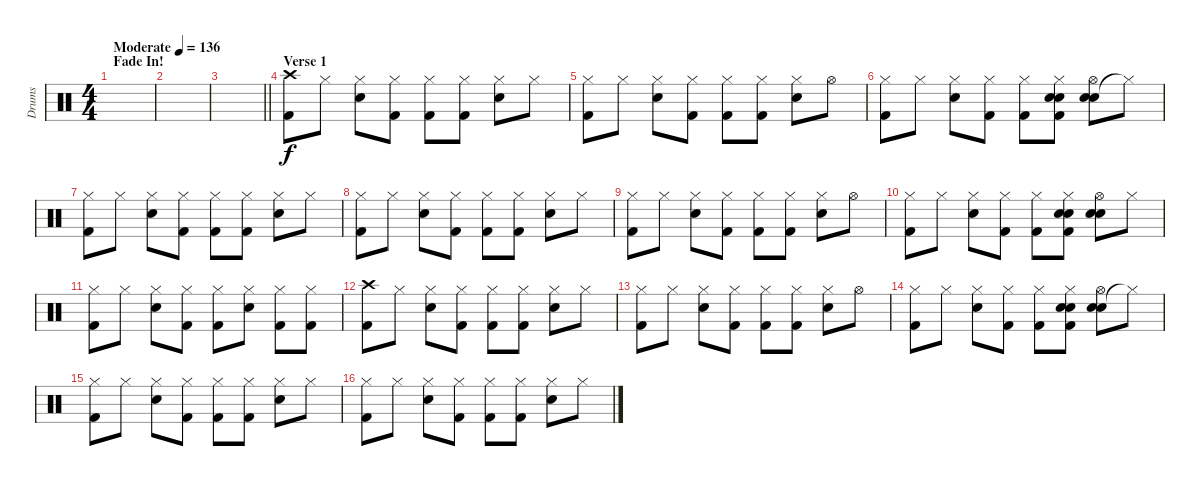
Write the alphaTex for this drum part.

\track ("Drums" "Drums") {instrument percussion}
\staff {score}
\articulation defaults
\ts (4 4)
\section ("" "Fade In!")
\tempo (136 "Moderate")
\clef neutral
\ks c
|
|
\barLineRight lightlight
|
\section ("" "Verse 1")
("Crash high (hit)" "Kick (hit) 2").8 "Hi-Hat (closed)".8 ("Hi-Hat (closed)" "Electric Snare (hit)").8 ("Hi-Hat (closed)" "Kick (hit) 2").8 ("Hi-Hat (closed)" "Kick (hit) 2").8 ("Hi-Hat (closed)" "Kick (hit) 2").8 ("Hi-Hat (closed)" "Electric Snare (hit)").8 "Hi-Hat (closed)".8 |
("Hi-Hat (closed)" "Kick (hit) 2").8 "Hi-Hat (closed)".8 ("Hi-Hat (closed)" "Electric Snare (hit)").8 ("Hi-Hat (closed)" "Kick (hit) 2").8 ("Hi-Hat (closed)" "Kick (hit) 2").8 ("Hi-Hat (closed)" "Kick (hit) 2").8 ("Hi-Hat (closed)" "Electric Snare (hit)").8 "Hi-Hat (open)".8 |
("Hi-Hat (closed)" "Kick (hit) 2").8 "Hi-Hat (closed)".8 ("Hi-Hat (closed)" "Electric Snare (hit)").8 ("Hi-Hat (closed)" "Kick (hit) 2").8 ("Hi-Hat (closed)" "Kick (hit) 2").8 ("Hand Clap (hit)" "Hi-Hat (closed)" "Electric Snare (hit)" "Kick (hit) 2").8 ("Hand Clap (hit)" "Hi-Hat (open)" "Electric Snare (hit)").8 "Hi-Hat (closed)"{t}.8 |
("Hi-Hat (closed)" "Kick (hit) 2").8 "Hi-Hat (closed)".8 ("Hi-Hat (closed)" "Electric Snare (hit)").8 ("Hi-Hat (closed)" "Kick (hit) 2").8 ("Hi-Hat (closed)" "Kick (hit) 2").8 ("Hi-Hat (closed)" "Kick (hit) 2").8 ("Hi-Hat (closed)" "Electric Snare (hit)").8 "Hi-Hat (closed)".8 |
("Hi-Hat (closed)" "Kick (hit) 2").8 "Hi-Hat (closed)".8 ("Hi-Hat (closed)" "Electric Snare (hit)").8 ("Hi-Hat (closed)" "Kick (hit) 2").8 ("Hi-Hat (closed)" "Kick (hit) 2").8 ("Hi-Hat (closed)" "Kick (hit) 2").8 ("Hi-Hat (closed)" "Electric Snare (hit)").8 "Hi-Hat (closed)".8 |
("Hi-Hat (closed)" "Kick (hit) 2").8 "Hi-Hat (closed)".8 ("Hi-Hat (closed)" "Electric Snare (hit)").8 ("Hi-Hat (closed)" "Kick (hit) 2").8 ("Hi-Hat (closed)" "Kick (hit) 2").8 ("Hi-Hat (closed)" "Kick (hit) 2").8 ("Hi-Hat (closed)" "Electric Snare (hit)").8 "Hi-Hat (open)".8 |
("Hi-Hat (closed)" "Kick (hit) 2").8 "Hi-Hat (closed)".8 ("Hi-Hat (closed)" "Electric Snare (hit)").8 ("Hi-Hat (closed)" "Kick (hit) 2").8 ("Hi-Hat (closed)" "Kick (hit) 2").8 ("Hand Clap (hit)" "Hi-Hat (closed)" "Electric Snare (hit)" "Kick (hit) 2").8 ("Hand Clap (hit)" "Hi-Hat (open)" "Electric Snare (hit)").8 "Hi-Hat (closed)".8 |
("Hi-Hat (closed)" "Kick (hit) 2").8 "Hi-Hat (closed)".8 ("Hi-Hat (closed)" "Electric Snare (hit)").8 ("Hi-Hat (closed)" "Kick (hit) 2").8 ("Hi-Hat (closed)" "Kick (hit) 2").8 ("Hi-Hat (closed)" "Electric Snare (hit)").8 ("Hi-Hat (closed)" "Kick (hit) 2").8 ("Hi-Hat (closed)" "Kick (hit) 2").8 |
("Crash high (hit)" "Kick (hit) 2").8 "Hi-Hat (closed)".8 ("Hi-Hat (closed)" "Electric Snare (hit)").8 ("Hi-Hat (closed)" "Kick (hit) 2").8 ("Hi-Hat (closed)" "Kick (hit) 2").8 ("Hi-Hat (closed)" "Kick (hit) 2").8 ("Hi-Hat (closed)" "Electric Snare (hit)").8 "Hi-Hat (closed)".8 |
("Hi-Hat (closed)" "Kick (hit) 2").8 "Hi-Hat (closed)".8 ("Hi-Hat (closed)" "Electric Snare (hit)").8 ("Hi-Hat (closed)" "Kick (hit) 2").8 ("Hi-Hat (closed)" "Kick (hit) 2").8 ("Hi-Hat (closed)" "Kick (hit) 2").8 ("Hi-Hat (closed)" "Electric Snare (hit)").8 "Hi-Hat (open)".8 |
("Hi-Hat (closed)" "Kick (hit) 2").8 "Hi-Hat (closed)".8 ("Hi-Hat (closed)" "Electric Snare (hit)").8 ("Hi-Hat (closed)" "Kick (hit) 2").8 ("Hi-Hat (closed)" "Kick (hit) 2").8 ("Hand Clap (hit)" "Hi-Hat (closed)" "Electric Snare (hit)" "Kick (hit) 2").8 ("Hand Clap (hit)" "Hi-Hat (open)" "Electric Snare (hit)").8 "Hi-Hat (closed)"{t}.8 |
("Hi-Hat (closed)" "Kick (hit) 2").8 "Hi-Hat (closed)".8 ("Hi-Hat (closed)" "Electric Snare (hit)").8 ("Hi-Hat (closed)" "Kick (hit) 2").8 ("Hi-Hat (closed)" "Kick (hit) 2").8 ("Hi-Hat (closed)" "Kick (hit) 2").8 ("Hi-Hat (closed)" "Electric Snare (hit)").8 "Hi-Hat (closed)".8 |
("Hi-Hat (closed)" "Kick (hit) 2").8 "Hi-Hat (closed)".8 ("Hi-Hat (closed)" "Electric Snare (hit)").8 ("Hi-Hat (closed)" "Kick (hit) 2").8 ("Hi-Hat (closed)" "Kick (hit) 2").8 ("Hi-Hat (closed)" "Kick (hit) 2").8 ("Hi-Hat (closed)" "Electric Snare (hit)").8 "Hi-Hat (closed)".8
